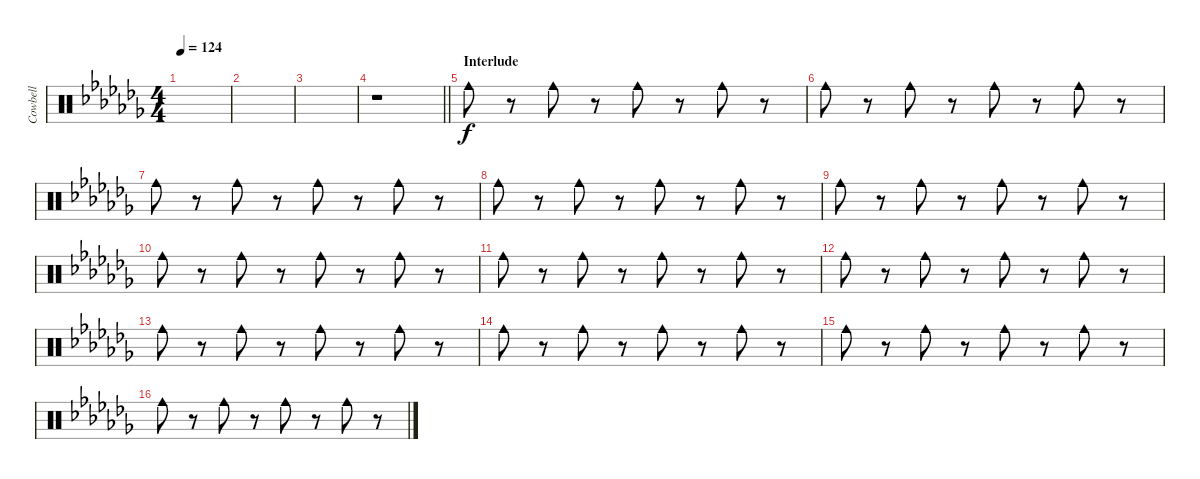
\track ("Cowbell" "Cowbell") {instrument percussion}
\staff {score}
\articulation defaults
\ts (4 4)
\tempo 124
\clef neutral
\ks cb
|
|
|
\barLineRight lightlight
r.1{volume 8 balance 5} |
\section ("" "Interlude")
"Cowbell medium (hit)".8 r.8 "Cowbell medium (hit)".8 r.8 "Cowbell medium (hit)".8 r.8 "Cowbell medium (hit)".8 r.8 |
"Cowbell medium (hit)".8 r.8 "Cowbell medium (hit)".8 r.8 "Cowbell medium (hit)".8 r.8 "Cowbell medium (hit)".8 r.8 |
"Cowbell medium (hit)".8 r.8 "Cowbell medium (hit)".8 r.8 "Cowbell medium (hit)".8 r.8 "Cowbell medium (hit)".8 r.8 |
"Cowbell medium (hit)".8 r.8 "Cowbell medium (hit)".8 r.8 "Cowbell medium (hit)".8 r.8 "Cowbell medium (hit)".8 r.8 |
"Cowbell medium (hit)".8 r.8 "Cowbell medium (hit)".8 r.8 "Cowbell medium (hit)".8 r.8 "Cowbell medium (hit)".8 r.8 |
"Cowbell medium (hit)".8 r.8 "Cowbell medium (hit)".8 r.8 "Cowbell medium (hit)".8 r.8 "Cowbell medium (hit)".8 r.8 |
"Cowbell medium (hit)".8 r.8 "Cowbell medium (hit)".8 r.8 "Cowbell medium (hit)".8 r.8 "Cowbell medium (hit)".8 r.8 |
"Cowbell medium (hit)".8 r.8 "Cowbell medium (hit)".8 r.8 "Cowbell medium (hit)".8 r.8 "Cowbell medium (hit)".8 r.8 |
"Cowbell medium (hit)".8 r.8 "Cowbell medium (hit)".8 r.8 "Cowbell medium (hit)".8 r.8 "Cowbell medium (hit)".8 r.8 |
"Cowbell medium (hit)".8 r.8 "Cowbell medium (hit)".8 r.8 "Cowbell medium (hit)".8 r.8 "Cowbell medium (hit)".8 r.8 |
"Cowbell medium (hit)".8 r.8 "Cowbell medium (hit)".8 r.8 "Cowbell medium (hit)".8 r.8 "Cowbell medium (hit)".8 r.8 |
"Cowbell medium (hit)".8 r.8 "Cowbell medium (hit)".8 r.8 "Cowbell medium (hit)".8 r.8 "Cowbell medium (hit)".8 r.8
